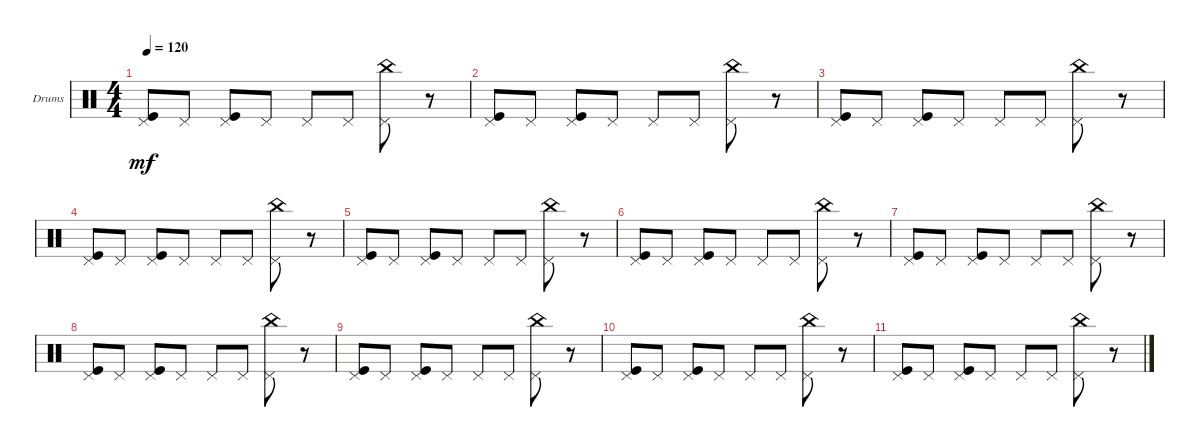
\defaultSystemsLayout 4
\bracketExtendMode groupsimilarinstruments
\firstSystemTrackNameOrientation horizontal
\otherSystemsTrackNameOrientation horizontal
\track ("Drumkit" "Drums") {instrument percussion}
\staff {score}
\articulation defaults
\ts (4 4)
\tempo 120
\clef neutral
\scale
0.333333
\ks c
("Pedal Hi-Hat (hit)" "Kick (hit)").8{dy mf} "Pedal Hi-Hat (hit)".8 ("Pedal Hi-Hat (hit)" "Kick (hit)").8 "Pedal Hi-Hat (hit)".8 "Pedal Hi-Hat (hit)".8 "Pedal Hi-Hat (hit)".8 ("Pedal Hi-Hat (hit)" "China (hit)").8 r.8 |
\scale
0.333333 ("Pedal Hi-Hat (hit)" "Kick (hit)").8 "Pedal Hi-Hat (hit)".8 ("Pedal Hi-Hat (hit)" "Kick (hit)").8 "Pedal Hi-Hat (hit)".8 "Pedal Hi-Hat (hit)".8 "Pedal Hi-Hat (hit)".8 ("Pedal Hi-Hat (hit)" "China (hit)").8 r.8 |
\scale
0.333333 ("Pedal Hi-Hat (hit)" "Kick (hit)").8 "Pedal Hi-Hat (hit)".8 ("Pedal Hi-Hat (hit)" "Kick (hit)").8 "Pedal Hi-Hat (hit)".8 "Pedal Hi-Hat (hit)".8 "Pedal Hi-Hat (hit)".8 ("Pedal Hi-Hat (hit)" "China (hit)").8 r.8 |
\scale
0.333333 ("Pedal Hi-Hat (hit)" "Kick (hit)").8 "Pedal Hi-Hat (hit)".8 ("Pedal Hi-Hat (hit)" "Kick (hit)").8 "Pedal Hi-Hat (hit)".8 "Pedal Hi-Hat (hit)".8 "Pedal Hi-Hat (hit)".8 ("Pedal Hi-Hat (hit)" "China (hit)").8 r.8 |
\scale
0.333333 ("Pedal Hi-Hat (hit)" "Kick (hit)").8 "Pedal Hi-Hat (hit)".8 ("Pedal Hi-Hat (hit)" "Kick (hit)").8 "Pedal Hi-Hat (hit)".8 "Pedal Hi-Hat (hit)".8 "Pedal Hi-Hat (hit)".8 ("Pedal Hi-Hat (hit)" "China (hit)").8 r.8 |
\scale
0.333333 ("Pedal Hi-Hat (hit)" "Kick (hit)").8 "Pedal Hi-Hat (hit)".8 ("Pedal Hi-Hat (hit)" "Kick (hit)").8 "Pedal Hi-Hat (hit)".8 "Pedal Hi-Hat (hit)".8 "Pedal Hi-Hat (hit)".8 ("Pedal Hi-Hat (hit)" "China (hit)").8 r.8 |
\scale
0.333333 ("Pedal Hi-Hat (hit)" "Kick (hit)").8 "Pedal Hi-Hat (hit)".8 ("Pedal Hi-Hat (hit)" "Kick (hit)").8 "Pedal Hi-Hat (hit)".8 "Pedal Hi-Hat (hit)".8 "Pedal Hi-Hat (hit)".8 ("Pedal Hi-Hat (hit)" "China (hit)").8 r.8 |
\scale
0.333333 ("Pedal Hi-Hat (hit)" "Kick (hit)").8 "Pedal Hi-Hat (hit)".8 ("Pedal Hi-Hat (hit)" "Kick (hit)").8 "Pedal Hi-Hat (hit)".8 "Pedal Hi-Hat (hit)".8 "Pedal Hi-Hat (hit)".8 ("Pedal Hi-Hat (hit)" "China (hit)").8 r.8 |
\scale
0.333333 ("Pedal Hi-Hat (hit)" "Kick (hit)").8 "Pedal Hi-Hat (hit)".8 ("Pedal Hi-Hat (hit)" "Kick (hit)").8 "Pedal Hi-Hat (hit)".8 "Pedal Hi-Hat (hit)".8 "Pedal Hi-Hat (hit)".8 ("Pedal Hi-Hat (hit)" "China (hit)").8 r.8 |
\scale
0.333333 ("Pedal Hi-Hat (hit)" "Kick (hit)").8 "Pedal Hi-Hat (hit)".8 ("Pedal Hi-Hat (hit)" "Kick (hit)").8 "Pedal Hi-Hat (hit)".8 "Pedal Hi-Hat (hit)".8 "Pedal Hi-Hat (hit)".8 ("Pedal Hi-Hat (hit)" "China (hit)").8 r.8 |
\scale
0.333333 ("Pedal Hi-Hat (hit)" "Kick (hit)").8 "Pedal Hi-Hat (hit)".8 ("Pedal Hi-Hat (hit)" "Kick (hit)").8 "Pedal Hi-Hat (hit)".8 "Pedal Hi-Hat (hit)".8 "Pedal Hi-Hat (hit)".8 ("Pedal Hi-Hat (hit)" "China (hit)").8 r.8 |
\scale
0.333333 |
\scale
0.333333 |
\scale
0.333333 |
\scale
0.333333 |
\scale
0.333333
